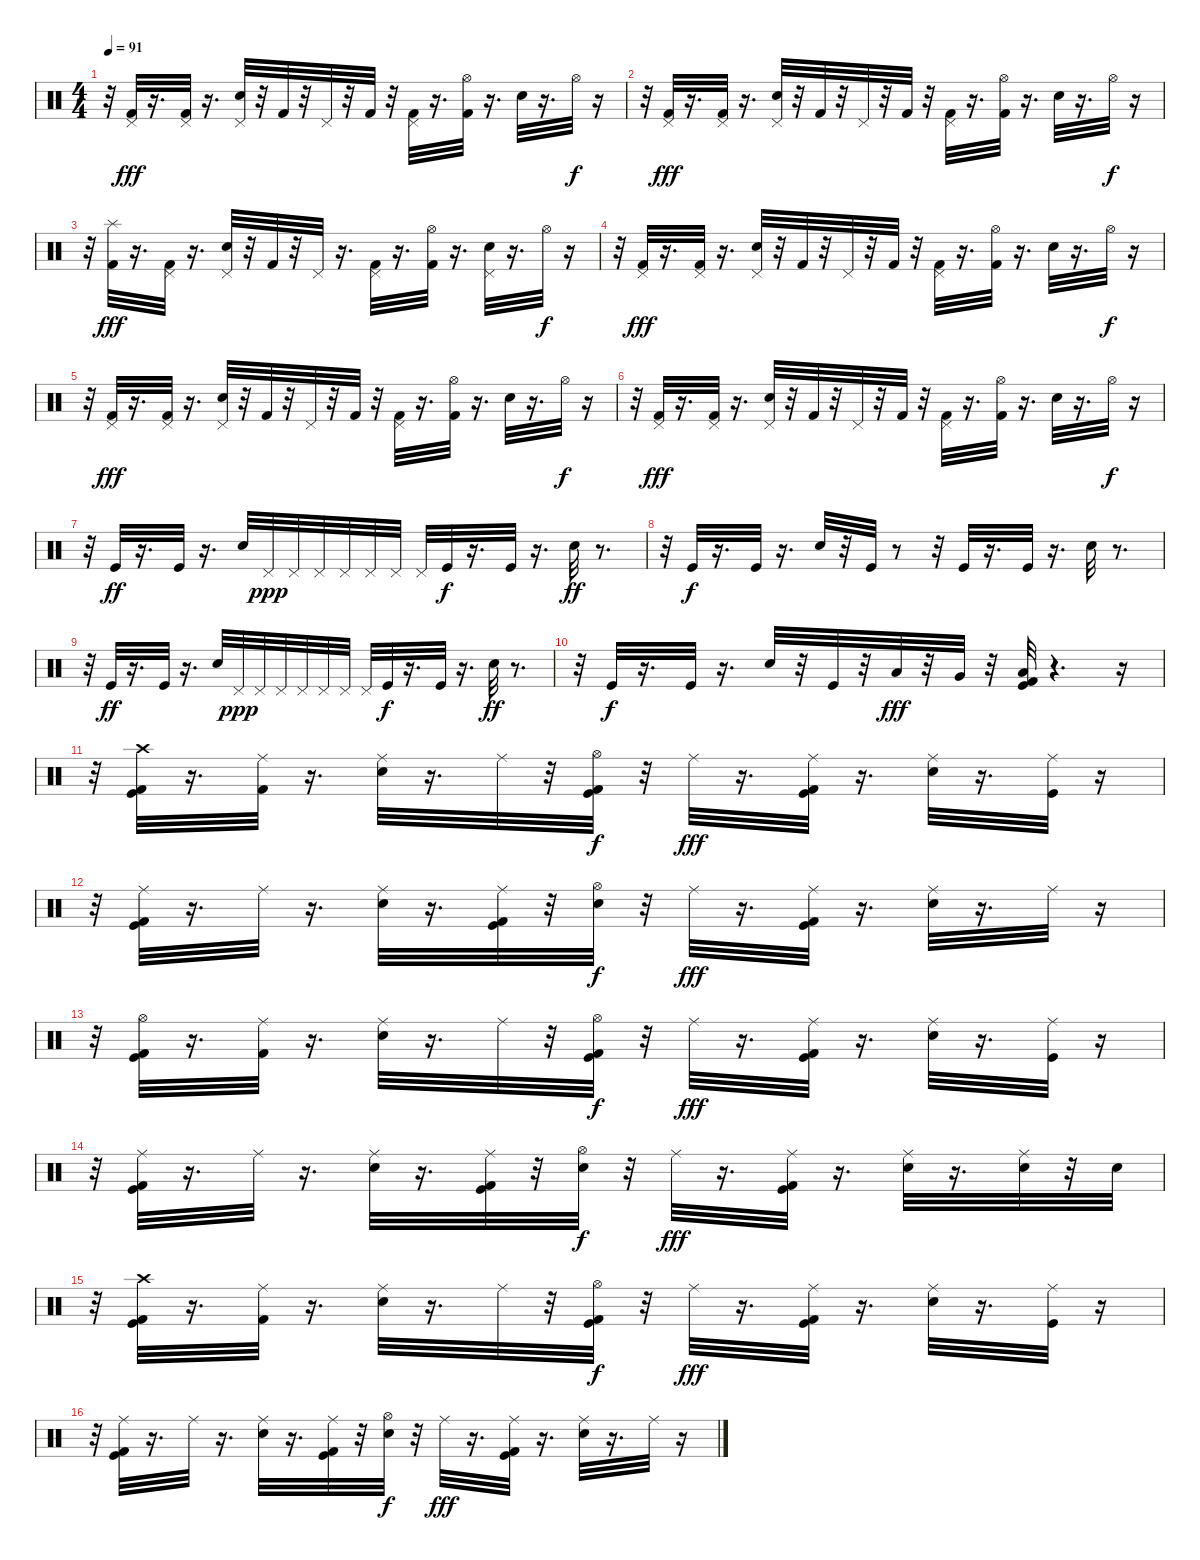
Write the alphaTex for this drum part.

\track "" {instrument percussion}
\staff {score}
\articulation defaults
\ts (4 4)
\tempo 91
\clef neutral
\ks c
r.32{dy f} ("Pedal Hi-Hat (hit)" "Kick (hit) 2").32{dy fff} r.16{d} ("Pedal Hi-Hat (hit)" "Kick (hit) 2").32 r.16{d} ("Pedal Hi-Hat (hit)" "Snare (hit) 2").32 r.32 "Kick (hit) 2".32 r.32 "Pedal Hi-Hat (hit)".32 r.32 "Kick (hit) 2".32 r.32 ("Pedal Hi-Hat (hit)" "Kick (hit) 2").32 r.16{d} ("Kick (hit) 2" "Hi-Hat (open)").32 r.16{d} "Snare (hit) 2".32 r.16{d} "Hi-Hat (open)".32{dy f} r.16 |
r.32 ("Pedal Hi-Hat (hit)" "Kick (hit) 2").32{dy fff} r.16{d} ("Pedal Hi-Hat (hit)" "Kick (hit) 2").32 r.16{d} ("Pedal Hi-Hat (hit)" "Snare (hit) 2").32 r.32 "Kick (hit) 2".32 r.32 "Pedal Hi-Hat (hit)".32 r.32 "Kick (hit) 2".32 r.32 ("Pedal Hi-Hat (hit)" "Kick (hit) 2").32 r.16{d} ("Kick (hit) 2" "Hi-Hat (open)").32 r.16{d} "Snare (hit) 2".32 r.16{d} "Hi-Hat (open)".32{dy f} r.16 |
r.32 ("Splash (hit)" "Kick (hit) 2").32{dy fff} r.16{d} ("Kick (hit) 2" "Pedal Hi-Hat (hit)").32 r.16{d} ("Pedal Hi-Hat (hit)" "Snare (hit) 2").32 r.32 "Kick (hit) 2".32 r.32 "Pedal Hi-Hat (hit)".32 r.16{d} ("Pedal Hi-Hat (hit)" "Kick (hit) 2").32 r.16{d} ("Kick (hit) 2" "Hi-Hat (open)").32 r.16{d} ("Pedal Hi-Hat (hit)" "Snare (hit) 2").32 r.16{d} "Hi-Hat (open)".32{dy f} r.16 |
r.32 ("Pedal Hi-Hat (hit)" "Kick (hit) 2").32{dy fff} r.16{d} ("Pedal Hi-Hat (hit)" "Kick (hit) 2").32 r.16{d} ("Pedal Hi-Hat (hit)" "Snare (hit) 2").32 r.32 "Kick (hit) 2".32 r.32 "Pedal Hi-Hat (hit)".32 r.32 "Kick (hit) 2".32 r.32 ("Pedal Hi-Hat (hit)" "Kick (hit) 2").32 r.16{d} ("Kick (hit) 2" "Hi-Hat (open)").32 r.16{d} "Snare (hit) 2".32 r.16{d} "Hi-Hat (open)".32{dy f} r.16 |
r.32 ("Pedal Hi-Hat (hit)" "Kick (hit) 2").32{dy fff} r.16{d} ("Pedal Hi-Hat (hit)" "Kick (hit) 2").32 r.16{d} ("Pedal Hi-Hat (hit)" "Snare (hit) 2").32 r.32 "Kick (hit) 2".32 r.32 "Pedal Hi-Hat (hit)".32 r.32 "Kick (hit) 2".32 r.32 ("Pedal Hi-Hat (hit)" "Kick (hit) 2").32 r.16{d} ("Kick (hit) 2" "Hi-Hat (open)").32 r.16{d} "Snare (hit) 2".32 r.16{d} "Hi-Hat (open)".32{dy f} r.16 |
r.32 ("Pedal Hi-Hat (hit)" "Kick (hit) 2").32{dy fff} r.16{d} ("Pedal Hi-Hat (hit)" "Kick (hit) 2").32 r.16{d} ("Pedal Hi-Hat (hit)" "Snare (hit) 2").32 r.32 "Kick (hit) 2".32 r.32 "Pedal Hi-Hat (hit)".32 r.32 "Kick (hit) 2".32 r.32 ("Pedal Hi-Hat (hit)" "Kick (hit) 2").32 r.16{d} ("Kick (hit) 2" "Hi-Hat (open)").32 r.16{d} "Snare (hit) 2".32 r.16{d} "Hi-Hat (open)".32{dy f} r.16 |
r.32 "Kick (hit)".32{dy ff} r.16{d} "Kick (hit)".32 r.16{d} "Electric Snare (hit)".32 "Pedal Hi-Hat (hit)".32{dy ppp} "Pedal Hi-Hat (hit)".32 "Pedal Hi-Hat (hit)".32 "Pedal Hi-Hat (hit)".32 "Pedal Hi-Hat (hit)".32 "Pedal Hi-Hat (hit)".32 "Pedal Hi-Hat (hit)".32 "Kick (hit)".32{dy f} r.16{d} "Kick (hit)".32 r.16{d} "Electric Snare (hit)".32{dy ff} r.8{d} |
r.32 "Kick (hit)".32{dy f} r.16{d} "Kick (hit)".32 r.16{d} "Electric Snare (hit)".32 r.32 "Kick (hit)".32 r.8 r.32 "Kick (hit)".32 r.16{d} "Kick (hit)".32 r.16{d} "Electric Snare (hit)".32 r.8{d} |
r.32 "Kick (hit)".32{dy ff} r.16{d} "Kick (hit)".32 r.16{d} "Electric Snare (hit)".32 "Pedal Hi-Hat (hit)".32{dy ppp} "Pedal Hi-Hat (hit)".32 "Pedal Hi-Hat (hit)".32 "Pedal Hi-Hat (hit)".32 "Pedal Hi-Hat (hit)".32 "Pedal Hi-Hat (hit)".32 "Pedal Hi-Hat (hit)".32 "Kick (hit)".32{dy f} r.16{d} "Kick (hit)".32 r.16{d} "Electric Snare (hit)".32{dy ff} r.8{d} |
r.32 "Kick (hit)".32{dy f} r.16{d} "Kick (hit)".32 r.16{d} "Electric Snare (hit)".32 r.32 "Kick (hit)".32 r.32 "Low Tom (hit)".32{dy fff} r.32 "Very Low Tom (hit)".32 r.32 ("Kick (hit)" "Kick (hit) 2" "Low Floor Tom (hit)").32 r.4{d} r.16 |
r.32 ("Crash high (hit)" "Kick (hit) 2" "Kick (hit)").32 r.16{d} ("Kick (hit) 2" "Ride (middle)").32 r.16{d} ("Ride (middle)" "Snare (hit) 2").32 r.16{d} "Ride (middle)".32 r.32 ("Hi-Hat (open)" "Kick (hit) 2" "Kick (hit)").32{dy f} r.32 "Ride (middle)".32{dy fff} r.16{d} ("Ride (middle)" "Kick (hit)" "Kick (hit) 2").32 r.16{d} ("Ride (middle)" "Snare (hit) 2").32 r.16{d} ("Ride (middle)" "Kick (hit)").32 r.16 |
r.32 ("Ride (middle)" "Kick (hit)" "Kick (hit) 2").32 r.16{d} "Ride (middle)".32 r.16{d} ("Ride (middle)" "Snare (hit) 2").32 r.16{d} ("Ride (middle)" "Kick (hit)" "Kick (hit) 2").32 r.32 ("Hi-Hat (open)" "Snare (hit) 2").32{dy f} r.32 "Ride (middle)".32{dy fff} r.16{d} ("Ride (middle)" "Kick (hit)" "Kick (hit) 2").32 r.16{d} ("Ride (middle)" "Snare (hit) 2").32 r.16{d} "Ride (middle)".32 r.16 |
r.32 ("Hi-Hat (open)" "Kick (hit) 2" "Kick (hit)").32 r.16{d} ("Kick (hit) 2" "Ride (middle)").32 r.16{d} ("Ride (middle)" "Snare (hit) 2").32 r.16{d} "Ride (middle)".32 r.32 ("Hi-Hat (open)" "Kick (hit) 2" "Kick (hit)").32{dy f} r.32 "Ride (middle)".32{dy fff} r.16{d} ("Ride (middle)" "Kick (hit)" "Kick (hit) 2").32 r.16{d} ("Ride (middle)" "Snare (hit) 2").32 r.16{d} ("Ride (middle)" "Kick (hit)").32 r.16 |
r.32 ("Ride (middle)" "Kick (hit)" "Kick (hit) 2").32 r.16{d} "Ride (middle)".32 r.16{d} ("Ride (middle)" "Snare (hit) 2").32 r.16{d} ("Ride (middle)" "Kick (hit)" "Kick (hit) 2").32 r.32 ("Hi-Hat (open)" "Snare (hit) 2").32{dy f} r.32 "Ride (middle)".32{dy fff} r.16{d} ("Ride (middle)" "Kick (hit)" "Kick (hit) 2").32 r.16{d} ("Ride (middle)" "Snare (hit) 2").32 r.16{d} ("Snare (hit) 2" "Ride (middle)").32 r.32 "Snare (hit) 2".32 |
r.32 ("Crash high (hit)" "Kick (hit) 2" "Kick (hit)").32 r.16{d} ("Kick (hit) 2" "Ride (middle)").32 r.16{d} ("Ride (middle)" "Snare (hit) 2").32 r.16{d} "Ride (middle)".32 r.32 ("Hi-Hat (open)" "Kick (hit) 2" "Kick (hit)").32{dy f} r.32 "Ride (middle)".32{dy fff} r.16{d} ("Ride (middle)" "Kick (hit)" "Kick (hit) 2").32 r.16{d} ("Ride (middle)" "Snare (hit) 2").32 r.16{d} ("Ride (middle)" "Kick (hit)").32 r.16 |
r.32 ("Ride (middle)" "Kick (hit)" "Kick (hit) 2").32 r.16{d} "Ride (middle)".32 r.16{d} ("Ride (middle)" "Snare (hit) 2").32 r.16{d} ("Ride (middle)" "Kick (hit)" "Kick (hit) 2").32 r.32 ("Hi-Hat (open)" "Snare (hit) 2").32{dy f} r.32 "Ride (middle)".32{dy fff} r.16{d} ("Ride (middle)" "Kick (hit)" "Kick (hit) 2").32 r.16{d} ("Ride (middle)" "Snare (hit) 2").32 r.16{d} "Ride (middle)".32 r.16
